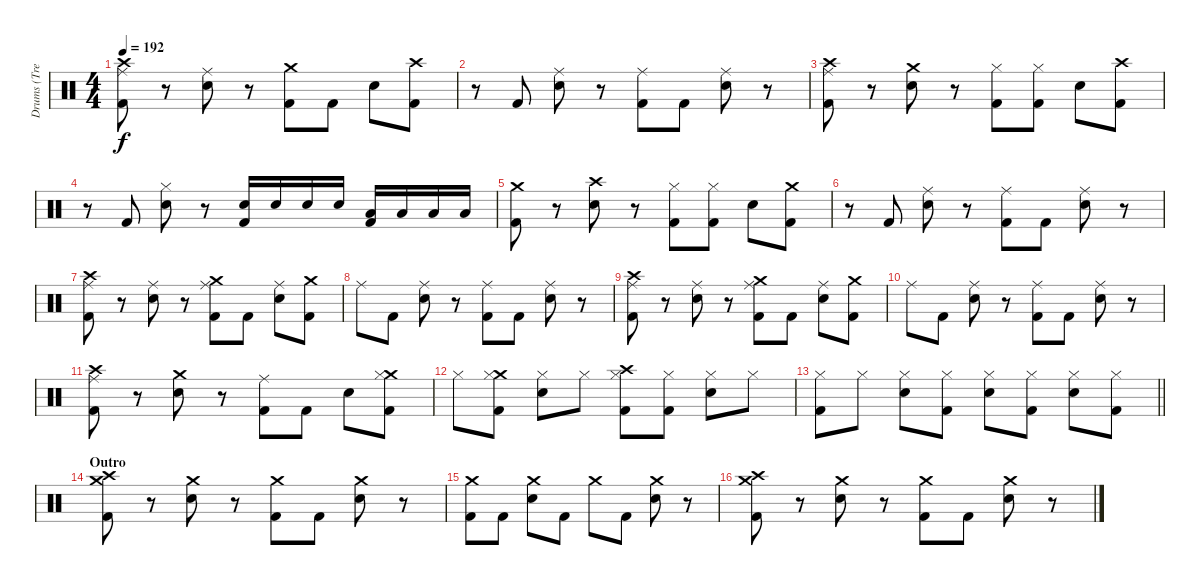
\track ("Drums (Tre Cool)" "Drums (Tre") {instrument percussion}
\staff {score}
\articulation defaults
\ts (4 4)
\tempo 192
\clef neutral
\ks c
("Crash high (hit)" "Ride (middle)" "Kick (hit) 2").8{dy f} r.8 ("Ride (middle)" "Snare (hit) 2").8 r.8 ("Crash medium (hit)" "Kick (hit) 2").8 "Kick (hit) 2".8 "Snare (hit) 2".8 ("Crash high (hit)" "Kick (hit) 2").8 |
r.8 "Kick (hit) 2".8 ("Ride (middle)" "Snare (hit) 2").8 r.8 ("Ride (middle)" "Kick (hit) 2").8 "Kick (hit) 2".8 ("Ride (middle)" "Snare (hit) 2").8 r.8 |
("Crash high (hit)" "Ride (middle)" "Kick (hit) 2").8 r.8 ("Crash medium (hit)" "Snare (hit) 2").8 r.8 ("Hi-Hat (closed)" "Kick (hit) 2").8 ("Hi-Hat (closed)" "Kick (hit) 2").8 "Snare (hit) 2".8 ("Crash high (hit)" "Kick (hit) 2").8 |
r.8 "Kick (hit) 2".8 ("Hi-Hat (closed)" "Snare (hit) 2").8 r.8 ("Snare (hit) 2" "Kick (hit) 2").16 "Snare (hit) 2".16 "Snare (hit) 2".16 "Snare (hit) 2".16 ("Low Floor Tom (hit)" "Kick (hit) 2").16 "Low Floor Tom (hit)".16 "Low Floor Tom (hit)".16 "Low Floor Tom (hit)".16 |
("Crash medium (hit)" "Kick (hit) 2").8 r.8 ("Crash high (hit)" "Snare (hit) 2").8 r.8 ("Hi-Hat (closed)" "Kick (hit) 2").8 ("Hi-Hat (closed)" "Kick (hit) 2").8 "Snare (hit) 2".8 ("Crash medium (hit)" "Kick (hit) 2").8 |
r.8 "Kick (hit) 2".8 ("Ride (middle)" "Snare (hit) 2").8 r.8 ("Ride (middle)" "Kick (hit) 2").8 "Kick (hit) 2".8 ("Ride (middle)" "Snare (hit) 2").8 r.8 |
("Crash high (hit)" "Ride (middle)" "Kick (hit) 2").8 r.8 ("Ride (middle)" "Snare (hit) 2").8 r.8 ("Crash medium (hit)" "Ride (middle)" "Kick (hit) 2").8 "Kick (hit) 2".8 ("Ride (middle)" "Snare (hit) 2").8 ("Crash medium (hit)" "Kick (hit) 2").8 |
"Ride (middle)".8 "Kick (hit) 2".8 ("Ride (middle)" "Snare (hit) 2").8 r.8 ("Ride (middle)" "Kick (hit) 2").8 "Kick (hit) 2".8 ("Ride (middle)" "Snare (hit) 2").8 r.8 |
("Crash high (hit)" "Ride (middle)" "Kick (hit) 2").8 r.8 ("Ride (middle)" "Snare (hit) 2").8 r.8 ("Crash medium (hit)" "Ride (middle)" "Kick (hit) 2").8 "Kick (hit) 2".8 ("Ride (middle)" "Snare (hit) 2").8 ("Crash medium (hit)" "Kick (hit) 2").8 |
"Ride (middle)".8 "Kick (hit) 2".8 ("Ride (middle)" "Snare (hit) 2").8 r.8 ("Ride (middle)" "Kick (hit) 2").8 "Kick (hit) 2".8 ("Ride (middle)" "Snare (hit) 2").8 r.8 |
("Crash high (hit)" "Ride (middle)" "Kick (hit) 2").8 r.8 ("Crash medium (hit)" "Snare (hit) 2").8 r.8 ("Ride (middle)" "Kick (hit) 2").8 "Kick (hit) 2".8 "Snare (hit) 2".8 ("Crash medium (hit)" "Hi-Hat (closed)" "Kick (hit) 2").8 |
"Hi-Hat (closed)".8 ("Crash medium (hit)" "Hi-Hat (closed)" "Kick (hit) 2").8 ("Hi-Hat (closed)" "Snare (hit) 2").8 "Hi-Hat (closed)".8 ("Crash high (hit)" "Hi-Hat (closed)" "Kick (hit) 2").8 ("Hi-Hat (closed)" "Kick (hit) 2").8 ("Hi-Hat (closed)" "Snare (hit) 2").8 "Hi-Hat (closed)".8 |
\barLineRight lightlight
("Hi-Hat (closed)" "Kick (hit) 2").8 "Hi-Hat (closed)".8 ("Hi-Hat (closed)" "Snare (hit) 2").8 ("Hi-Hat (closed)" "Kick (hit) 2").8 ("Hi-Hat (closed)" "Snare (hit) 2").8 ("Hi-Hat (closed)" "Kick (hit) 2").8 ("Hi-Hat (closed)" "Snare (hit) 2").8 ("Hi-Hat (closed)" "Kick (hit) 2").8 |
\section ("" "Outro")
("Crash high (hit)" "Crash medium (hit)" "Kick (hit) 2").8 r.8 ("Crash medium (hit)" "Snare (hit) 2").8 r.8 ("Crash medium (hit)" "Kick (hit) 2").8 "Kick (hit) 2".8 ("Crash medium (hit)" "Snare (hit) 2").8 r.8 |
("Crash medium (hit)" "Kick (hit) 2").8 "Kick (hit) 2".8 ("Crash medium (hit)" "Snare (hit) 2").8 "Kick (hit) 2".8 "Crash medium (hit)".8 "Kick (hit) 2".8 ("Crash medium (hit)" "Snare (hit) 2").8 r.8 |
("Crash high (hit)" "Crash medium (hit)" "Kick (hit) 2").8 r.8 ("Crash medium (hit)" "Snare (hit) 2").8 r.8 ("Crash medium (hit)" "Kick (hit) 2").8 "Kick (hit) 2".8 ("Crash medium (hit)" "Snare (hit) 2").8 r.8
